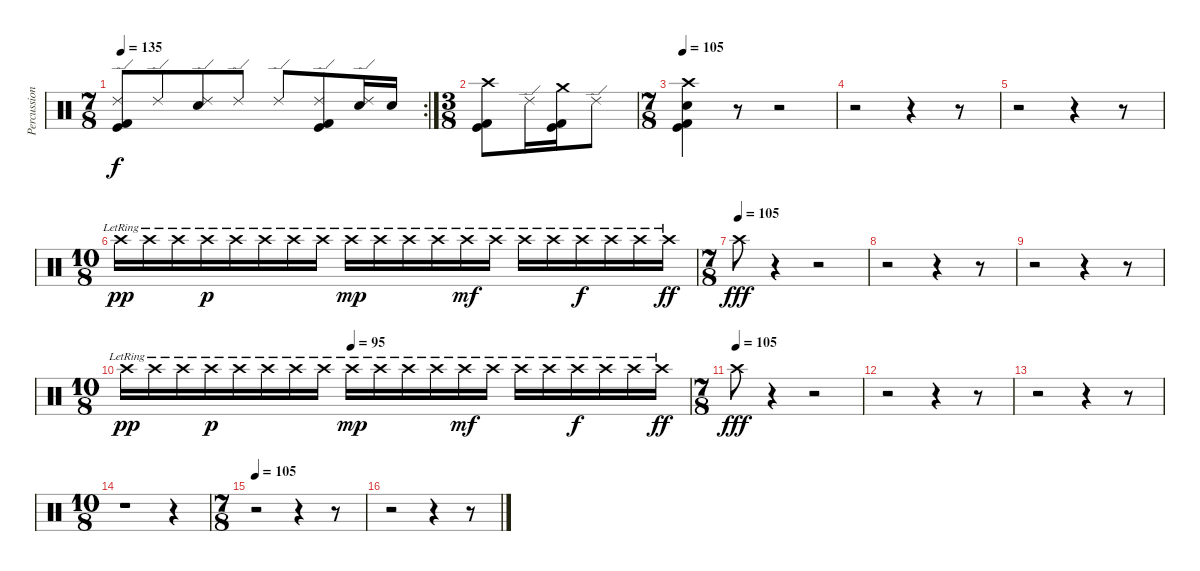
\track ("Percussion" "Percussion") {instrument percussion}
\staff {score}
\articulation defaults
\rc 2
\ts (7 8)
\tempo 135
\clef neutral
\ks c
("Ride (edge) 2" "Kick (hit) 2" "Kick (hit)").8{dy f} "Ride (edge) 2".8 ("Ride (edge) 2" "Snare (hit) 2").8 "Ride (edge) 2".8 "Ride (edge) 2".8 ("Ride (edge) 2" "Kick (hit) 2" "Kick (hit)").8 ("Ride (edge) 2" "Snare (hit) 2").16 "Snare (hit) 2".16 |
\ts (3 8)
("Crash high (hit)" "Kick (hit) 2" "Kick (hit)").8 "Ride (edge) 2".16 ("Crash medium (hit)" "Kick (hit) 2" "Kick (hit)").16 "Ride (edge) 2".8 |
\ts (7 8)
\tempo 105
("Crash high (hit)" "Snare (hit) 2" "Kick (hit) 2" "Kick (hit)").4 r.8 r.2 |
r.2 r.4 r.8 |
r.2 r.4 r.8 |
\ts (10 8)
"Crash high (hit)"{lr}.16{dy pp} "Crash high (hit)"{lr}.16 "Crash high (hit)"{lr}.16 "Crash high (hit)"{lr}.16{dy p} "Crash high (hit)"{lr}.16 "Crash high (hit)"{lr}.16 "Crash high (hit)"{lr}.16 "Crash high (hit)"{lr}.16 "Crash high (hit)"{lr}.16{dy mp} "Crash high (hit)"{lr}.16 "Crash high (hit)"{lr}.16 "Crash high (hit)"{lr}.16 "Crash high (hit)"{lr}.16{dy mf} "Crash high (hit)"{lr}.16 "Crash high (hit)"{lr}.16 "Crash high (hit)"{lr}.16 "Crash high (hit)"{lr}.16{dy f} "Crash high (hit)"{lr}.16 "Crash high (hit)"{lr}.16 "Crash high (hit)"{lr}.16{dy ff} |
\ts (7 8)
\tempo (105)
"Crash high (hit)".8{dy fff} r.4 r.2 |
r.2 r.4 r.8 |
r.2 r.4 r.8 |
\ts (10 8)
\tempo (95 0.4)
"Crash high (hit)"{lr}.16{dy pp} "Crash high (hit)"{lr}.16 "Crash high (hit)"{lr}.16 "Crash high (hit)"{lr}.16{dy p} "Crash high (hit)"{lr}.16 "Crash high (hit)"{lr}.16 "Crash high (hit)"{lr}.16 "Crash high (hit)"{lr}.16 "Crash high (hit)"{lr}.16{dy mp} "Crash high (hit)"{lr}.16 "Crash high (hit)"{lr}.16 "Crash high (hit)"{lr}.16 "Crash high (hit)"{lr}.16{dy mf} "Crash high (hit)"{lr}.16 "Crash high (hit)"{lr}.16 "Crash high (hit)"{lr}.16 "Crash high (hit)"{lr}.16{dy f} "Crash high (hit)"{lr}.16 "Crash high (hit)"{lr}.16 "Crash high (hit)"{lr}.16{dy ff} |
\ts (7 8)
\tempo (105)
"Crash high (hit)".8{dy fff} r.4 r.2 |
r.2 r.4 r.8 |
r.2 r.4 r.8 |
\ts (10 8)
r.1 r.4 |
\ts (7 8)
\tempo 105
r.2 r.4 r.8 |
r.2 r.4 r.8
